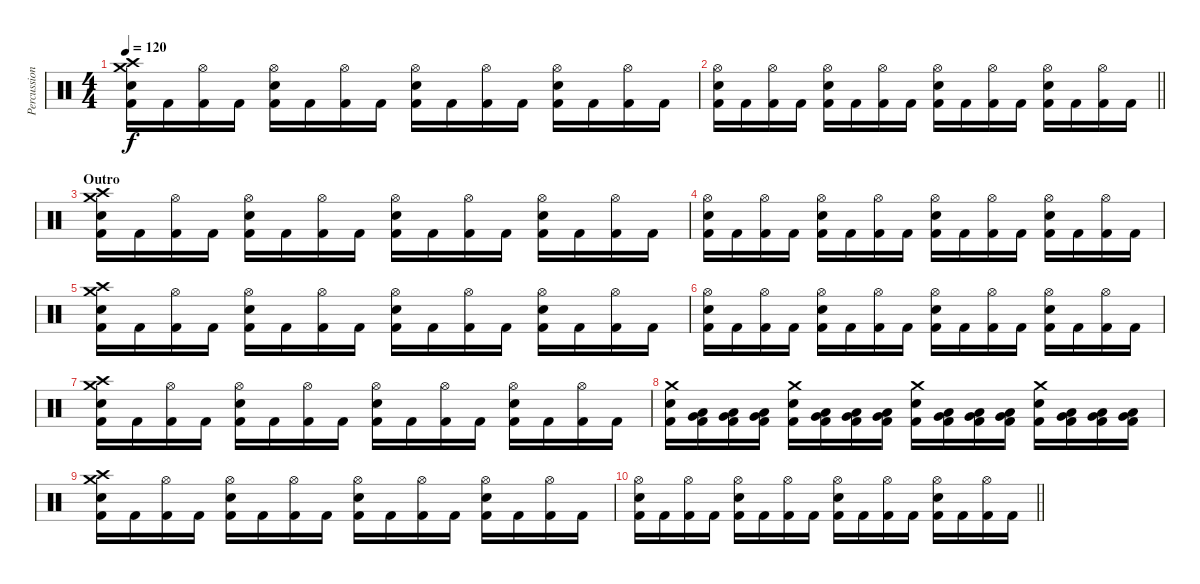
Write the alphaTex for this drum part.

\track ("Percussion" "Percussion") {instrument percussion}
\staff {score}
\articulation defaults
\ts (4 4)
\tempo 120
\clef neutral
\ks c
("Crash medium (hit)" "Crash high (hit)" "Electric Snare (hit)" "Kick (hit) 2").16{dy f} "Kick (hit) 2".16 ("Hi-Hat (open)" "Kick (hit) 2").16 "Kick (hit) 2".16 ("Hi-Hat (open)" "Electric Snare (hit)" "Kick (hit) 2").16 "Kick (hit) 2".16 ("Hi-Hat (open)" "Kick (hit) 2").16 "Kick (hit) 2".16 ("Hi-Hat (open)" "Electric Snare (hit)" "Kick (hit) 2").16 "Kick (hit) 2".16 ("Hi-Hat (open)" "Kick (hit) 2").16 "Kick (hit) 2".16 ("Hi-Hat (open)" "Electric Snare (hit)" "Kick (hit) 2").16 "Kick (hit) 2".16 ("Hi-Hat (open)" "Kick (hit) 2").16 "Kick (hit) 2".16 |
\barLineRight lightlight
("Hi-Hat (open)" "Electric Snare (hit)" "Kick (hit) 2").16 "Kick (hit) 2".16 ("Hi-Hat (open)" "Kick (hit) 2").16 "Kick (hit) 2".16 ("Hi-Hat (open)" "Electric Snare (hit)" "Kick (hit) 2").16 "Kick (hit) 2".16 ("Hi-Hat (open)" "Kick (hit) 2").16 "Kick (hit) 2".16 ("Hi-Hat (open)" "Electric Snare (hit)" "Kick (hit) 2").16 "Kick (hit) 2".16 ("Hi-Hat (open)" "Kick (hit) 2").16 "Kick (hit) 2".16 ("Hi-Hat (open)" "Electric Snare (hit)" "Kick (hit) 2").16 "Kick (hit) 2".16 ("Hi-Hat (open)" "Kick (hit) 2").16 "Kick (hit) 2".16 |
\section ("" "Outro")
("Crash medium (hit)" "Crash high (hit)" "Electric Snare (hit)" "Kick (hit) 2").16 "Kick (hit) 2".16 ("Hi-Hat (open)" "Kick (hit) 2").16 "Kick (hit) 2".16 ("Hi-Hat (open)" "Electric Snare (hit)" "Kick (hit) 2").16 "Kick (hit) 2".16 ("Hi-Hat (open)" "Kick (hit) 2").16 "Kick (hit) 2".16 ("Hi-Hat (open)" "Electric Snare (hit)" "Kick (hit) 2").16 "Kick (hit) 2".16 ("Hi-Hat (open)" "Kick (hit) 2").16 "Kick (hit) 2".16 ("Hi-Hat (open)" "Electric Snare (hit)" "Kick (hit) 2").16 "Kick (hit) 2".16 ("Hi-Hat (open)" "Kick (hit) 2").16 "Kick (hit) 2".16 |
("Hi-Hat (open)" "Electric Snare (hit)" "Kick (hit) 2").16 "Kick (hit) 2".16 ("Hi-Hat (open)" "Kick (hit) 2").16 "Kick (hit) 2".16 ("Hi-Hat (open)" "Electric Snare (hit)" "Kick (hit) 2").16 "Kick (hit) 2".16 ("Hi-Hat (open)" "Kick (hit) 2").16 "Kick (hit) 2".16 ("Hi-Hat (open)" "Electric Snare (hit)" "Kick (hit) 2").16 "Kick (hit) 2".16 ("Hi-Hat (open)" "Kick (hit) 2").16 "Kick (hit) 2".16 ("Hi-Hat (open)" "Electric Snare (hit)" "Kick (hit) 2").16 "Kick (hit) 2".16 ("Hi-Hat (open)" "Kick (hit) 2").16 "Kick (hit) 2".16 |
("Crash medium (hit)" "Crash high (hit)" "Electric Snare (hit)" "Kick (hit) 2").16 "Kick (hit) 2".16 ("Hi-Hat (open)" "Kick (hit) 2").16 "Kick (hit) 2".16 ("Hi-Hat (open)" "Electric Snare (hit)" "Kick (hit) 2").16 "Kick (hit) 2".16 ("Hi-Hat (open)" "Kick (hit) 2").16 "Kick (hit) 2".16 ("Hi-Hat (open)" "Electric Snare (hit)" "Kick (hit) 2").16 "Kick (hit) 2".16 ("Hi-Hat (open)" "Kick (hit) 2").16 "Kick (hit) 2".16 ("Hi-Hat (open)" "Electric Snare (hit)" "Kick (hit) 2").16 "Kick (hit) 2".16 ("Hi-Hat (open)" "Kick (hit) 2").16 "Kick (hit) 2".16 |
("Hi-Hat (open)" "Electric Snare (hit)" "Kick (hit) 2").16 "Kick (hit) 2".16 ("Hi-Hat (open)" "Kick (hit) 2").16 "Kick (hit) 2".16 ("Hi-Hat (open)" "Electric Snare (hit)" "Kick (hit) 2").16 "Kick (hit) 2".16 ("Hi-Hat (open)" "Kick (hit) 2").16 "Kick (hit) 2".16 ("Hi-Hat (open)" "Electric Snare (hit)" "Kick (hit) 2").16 "Kick (hit) 2".16 ("Hi-Hat (open)" "Kick (hit) 2").16 "Kick (hit) 2".16 ("Hi-Hat (open)" "Electric Snare (hit)" "Kick (hit) 2").16 "Kick (hit) 2".16 ("Hi-Hat (open)" "Kick (hit) 2").16 "Kick (hit) 2".16 |
("Crash medium (hit)" "Crash high (hit)" "Electric Snare (hit)" "Kick (hit) 2").16 "Kick (hit) 2".16 ("Hi-Hat (open)" "Kick (hit) 2").16 "Kick (hit) 2".16 ("Hi-Hat (open)" "Electric Snare (hit)" "Kick (hit) 2").16 "Kick (hit) 2".16 ("Hi-Hat (open)" "Kick (hit) 2").16 "Kick (hit) 2".16 ("Hi-Hat (open)" "Electric Snare (hit)" "Kick (hit) 2").16 "Kick (hit) 2".16 ("Hi-Hat (open)" "Kick (hit) 2").16 "Kick (hit) 2".16 ("Hi-Hat (open)" "Electric Snare (hit)" "Kick (hit) 2").16 "Kick (hit) 2".16 ("Hi-Hat (open)" "Kick (hit) 2").16 "Kick (hit) 2".16 |
("Crash medium (hit)" "Electric Snare (hit)" "Kick (hit) 2").16 ("Low Floor Tom (hit)" "Very Low Tom (hit)" "Kick (hit) 2").16 ("Low Floor Tom (hit)" "Very Low Tom (hit)" "Kick (hit) 2").16 ("Low Floor Tom (hit)" "Very Low Tom (hit)" "Kick (hit) 2").16 ("Crash medium (hit)" "Electric Snare (hit)" "Kick (hit) 2").16 ("Low Floor Tom (hit)" "Very Low Tom (hit)" "Kick (hit) 2").16 ("Low Floor Tom (hit)" "Very Low Tom (hit)" "Kick (hit) 2").16 ("Low Floor Tom (hit)" "Very Low Tom (hit)" "Kick (hit) 2").16 ("Crash medium (hit)" "Electric Snare (hit)" "Kick (hit) 2").16 ("Low Floor Tom (hit)" "Very Low Tom (hit)" "Kick (hit) 2").16 ("Low Floor Tom (hit)" "Very Low Tom (hit)" "Kick (hit) 2").16 ("Low Floor Tom (hit)" "Very Low Tom (hit)" "Kick (hit) 2").16 ("Crash medium (hit)" "Electric Snare (hit)" "Kick (hit) 2").16 ("Low Floor Tom (hit)" "Very Low Tom (hit)" "Kick (hit) 2").16 ("Low Floor Tom (hit)" "Very Low Tom (hit)" "Kick (hit) 2").16 ("Low Floor Tom (hit)" "Very Low Tom (hit)" "Kick (hit) 2").16 |
("Crash medium (hit)" "Crash high (hit)" "Electric Snare (hit)" "Kick (hit) 2").16 "Kick (hit) 2".16 ("Hi-Hat (open)" "Kick (hit) 2").16 "Kick (hit) 2".16 ("Hi-Hat (open)" "Electric Snare (hit)" "Kick (hit) 2").16 "Kick (hit) 2".16 ("Hi-Hat (open)" "Kick (hit) 2").16 "Kick (hit) 2".16 ("Hi-Hat (open)" "Electric Snare (hit)" "Kick (hit) 2").16 "Kick (hit) 2".16 ("Hi-Hat (open)" "Kick (hit) 2").16 "Kick (hit) 2".16 ("Hi-Hat (open)" "Electric Snare (hit)" "Kick (hit) 2").16 "Kick (hit) 2".16 ("Hi-Hat (open)" "Kick (hit) 2").16 "Kick (hit) 2".16 |
\barLineRight lightlight
("Hi-Hat (open)" "Electric Snare (hit)" "Kick (hit) 2").16 "Kick (hit) 2".16 ("Hi-Hat (open)" "Kick (hit) 2").16 "Kick (hit) 2".16 ("Hi-Hat (open)" "Electric Snare (hit)" "Kick (hit) 2").16 "Kick (hit) 2".16 ("Hi-Hat (open)" "Kick (hit) 2").16 "Kick (hit) 2".16 ("Hi-Hat (open)" "Electric Snare (hit)" "Kick (hit) 2").16 "Kick (hit) 2".16 ("Hi-Hat (open)" "Kick (hit) 2").16 "Kick (hit) 2".16 ("Hi-Hat (open)" "Electric Snare (hit)" "Kick (hit) 2").16 "Kick (hit) 2".16 ("Hi-Hat (open)" "Kick (hit) 2").16 "Kick (hit) 2".16
